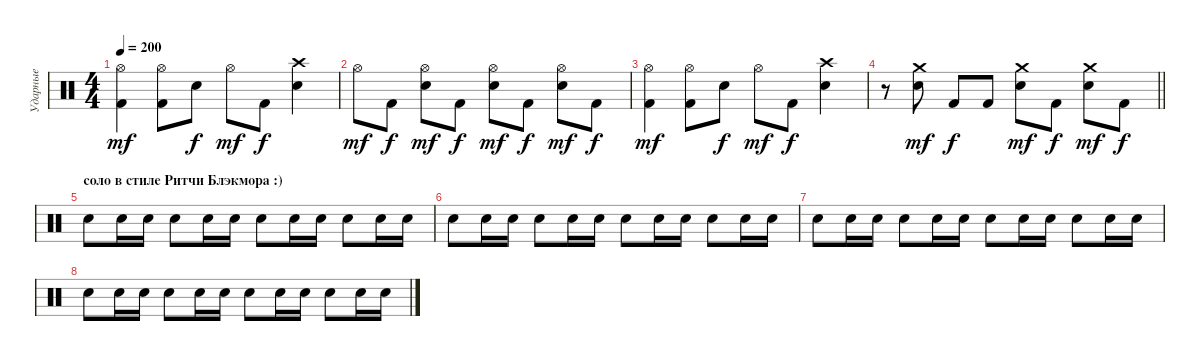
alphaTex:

\track ("Ударные" "Ударные") {instrument percussion}
\staff {score}
\articulation defaults
\ts (4 4)
\tempo 200
\clef neutral
\ks c
("Kick (hit) 2" "Hi-Hat (open)").4{dy mf} ("Kick (hit) 2" "Hi-Hat (open)").8 "Electric Snare (hit)".8{dy f} "Hi-Hat (open)".8{dy mf} "Kick (hit) 2".8{dy f} ("Electric Snare (hit)" "Crash high (hit)").4 |
"Hi-Hat (open)".8{dy mf} "Kick (hit) 2".8{dy f} ("Electric Snare (hit)" "Hi-Hat (open)").8{dy mf} "Kick (hit) 2".8{dy f} ("Electric Snare (hit)" "Hi-Hat (open)").8{dy mf} "Kick (hit) 2".8{dy f} ("Electric Snare (hit)" "Hi-Hat (open)").8{dy mf} "Kick (hit) 2".8{dy f} |
("Kick (hit) 2" "Hi-Hat (open)").4{dy mf} ("Kick (hit) 2" "Hi-Hat (open)").8 "Electric Snare (hit)".8{dy f} "Hi-Hat (open)".8{dy mf} "Kick (hit) 2".8{dy f} ("Electric Snare (hit)" "Crash high (hit)").4 |
\barLineRight lightlight
r.8 ("Electric Snare (hit)" "Crash medium (hit)").8{dy mf} "Kick (hit) 2".8{dy f} "Kick (hit) 2".8 ("Electric Snare (hit)" "Crash medium (hit)").8{dy mf} "Kick (hit) 2".8{dy f} ("Electric Snare (hit)" "Crash medium (hit)").8{dy mf} "Kick (hit) 2".8{dy f} |
\section ("" "соло в стиле Ритчи Блэкмора :)")
"Electric Snare (hit)".8 "Electric Snare (hit)".16 "Electric Snare (hit)".16 "Electric Snare (hit)".8 "Electric Snare (hit)".16 "Electric Snare (hit)".16 "Electric Snare (hit)".8 "Electric Snare (hit)".16 "Electric Snare (hit)".16 "Electric Snare (hit)".8 "Electric Snare (hit)".16 "Electric Snare (hit)".16 |
"Electric Snare (hit)".8 "Electric Snare (hit)".16 "Electric Snare (hit)".16 "Electric Snare (hit)".8 "Electric Snare (hit)".16 "Electric Snare (hit)".16 "Electric Snare (hit)".8 "Electric Snare (hit)".16 "Electric Snare (hit)".16 "Electric Snare (hit)".8 "Electric Snare (hit)".16 "Electric Snare (hit)".16 |
"Electric Snare (hit)".8 "Electric Snare (hit)".16 "Electric Snare (hit)".16 "Electric Snare (hit)".8 "Electric Snare (hit)".16 "Electric Snare (hit)".16 "Electric Snare (hit)".8 "Electric Snare (hit)".16 "Electric Snare (hit)".16 "Electric Snare (hit)".8 "Electric Snare (hit)".16 "Electric Snare (hit)".16 |
"Electric Snare (hit)".8 "Electric Snare (hit)".16 "Electric Snare (hit)".16 "Electric Snare (hit)".8 "Electric Snare (hit)".16 "Electric Snare (hit)".16 "Electric Snare (hit)".8 "Electric Snare (hit)".16 "Electric Snare (hit)".16 "Electric Snare (hit)".8 "Electric Snare (hit)".16 "Electric Snare (hit)".16
